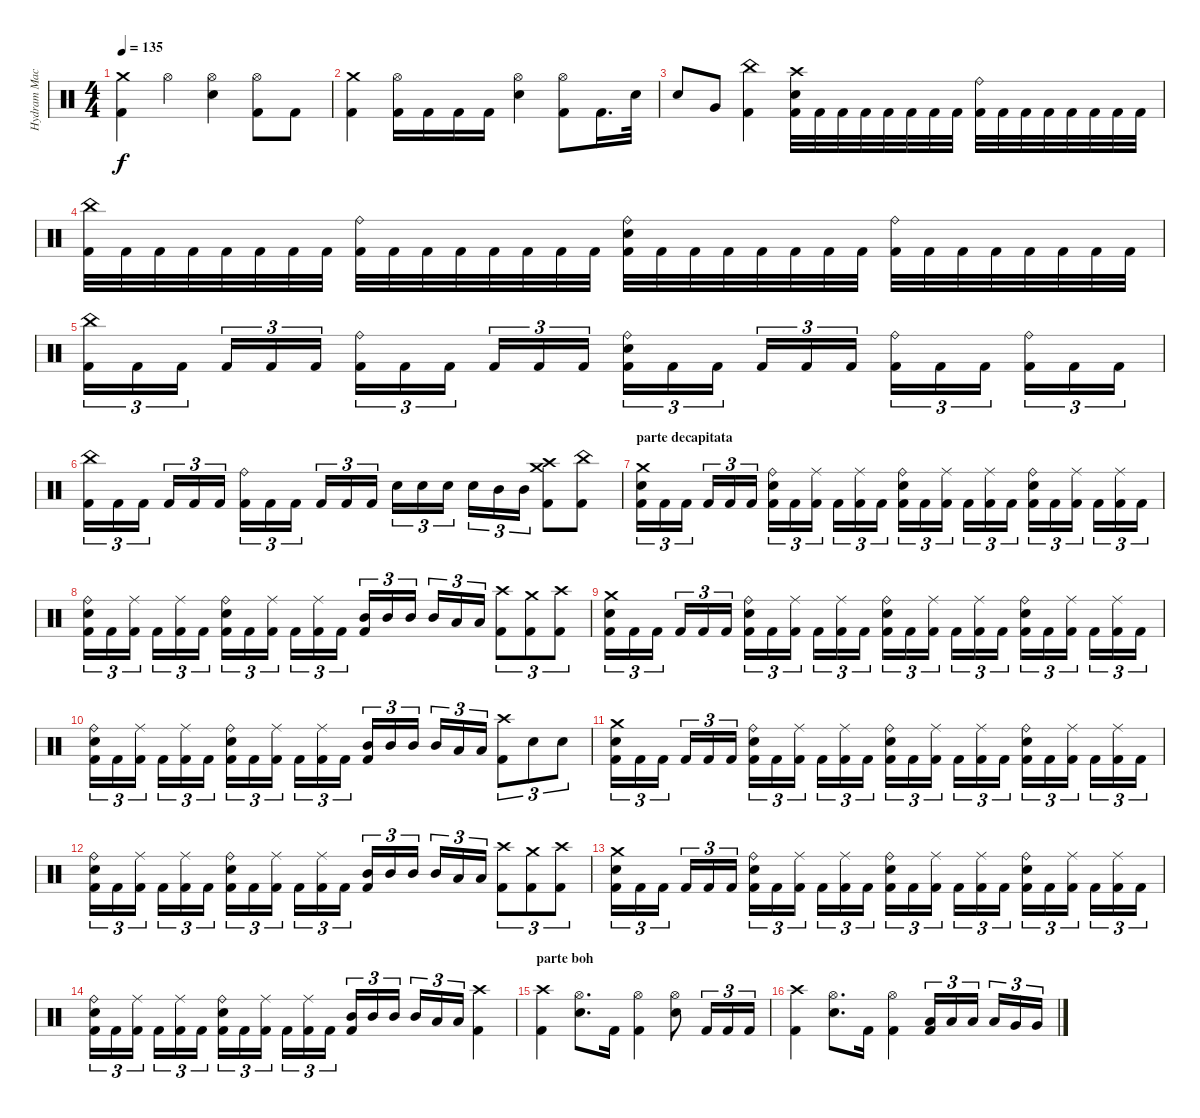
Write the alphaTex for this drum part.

\track ("Hydram Machine" "Hydram Mac") {instrument percussion}
\staff {score}
\articulation defaults
\ts (4 4)
\tempo 135
\clef neutral
\ks c
("Crash medium (hit)" "Kick (hit) 2").4{dy f} "Hi-Hat (open)".4 ("Hi-Hat (open)" "Electric Snare (hit)").4 ("Hi-Hat (open)" "Kick (hit) 2").8 "Kick (hit) 2".8 |
("Crash medium (hit)" "Kick (hit) 2").4 ("Hi-Hat (open)" "Kick (hit) 2").16 "Kick (hit) 2".16 "Kick (hit) 2".16 "Kick (hit) 2".16 ("Hi-Hat (open)" "Electric Snare (hit)").4 ("Hi-Hat (open)" "Kick (hit) 2").8 "Kick (hit) 2".16{d} "Electric Snare (hit)".32 |
"Electric Snare (hit)".8 "Very Low Tom (hit)".8 ("China (hit)" "Kick (hit) 2").4 ("Crash high (hit)" "Electric Snare (hit)" "Kick (hit) 2").32 "Kick (hit) 2".32 "Kick (hit) 2".32 "Kick (hit) 2".32 "Kick (hit) 2".32 "Kick (hit) 2".32 "Kick (hit) 2".32 "Kick (hit) 2".32 ("Ride (bell)" "Kick (hit) 2").32 "Kick (hit) 2".32 "Kick (hit) 2".32 "Kick (hit) 2".32 "Kick (hit) 2".32 "Kick (hit) 2".32 "Kick (hit) 2".32 "Kick (hit) 2".32 |
("China (hit)" "Kick (hit) 2").32 "Kick (hit) 2".32 "Kick (hit) 2".32 "Kick (hit) 2".32 "Kick (hit) 2".32 "Kick (hit) 2".32 "Kick (hit) 2".32 "Kick (hit) 2".32 ("Ride (bell)" "Kick (hit) 2").32 "Kick (hit) 2".32 "Kick (hit) 2".32 "Kick (hit) 2".32 "Kick (hit) 2".32 "Kick (hit) 2".32 "Kick (hit) 2".32 "Kick (hit) 2".32 ("Ride (bell)" "Electric Snare (hit)" "Kick (hit) 2").32 "Kick (hit) 2".32 "Kick (hit) 2".32 "Kick (hit) 2".32 "Kick (hit) 2".32 "Kick (hit) 2".32 "Kick (hit) 2".32 "Kick (hit) 2".32 ("Ride (bell)" "Kick (hit) 2").32 "Kick (hit) 2".32 "Kick (hit) 2".32 "Kick (hit) 2".32 "Kick (hit) 2".32 "Kick (hit) 2".32 "Kick (hit) 2".32 "Kick (hit) 2".32 |
("China (hit)" "Kick (hit) 2").16{tu (3 2)} "Kick (hit) 2".16{tu (3 2)} "Kick (hit) 2".16{tu (3 2) beam splitsecondary} "Kick (hit) 2".16{tu (3 2)} "Kick (hit) 2".16{tu (3 2)} "Kick (hit) 2".16{tu (3 2)} ("Ride (bell)" "Kick (hit) 2").16{tu (3 2)} "Kick (hit) 2".16{tu (3 2)} "Kick (hit) 2".16{tu (3 2) beam splitsecondary} "Kick (hit) 2".16{tu (3 2)} "Kick (hit) 2".16{tu (3 2)} "Kick (hit) 2".16{tu (3 2)} ("Ride (bell)" "Electric Snare (hit)" "Kick (hit) 2").16{tu (3 2)} "Kick (hit) 2".16{tu (3 2)} "Kick (hit) 2".16{tu (3 2) beam splitsecondary} "Kick (hit) 2".16{tu (3 2)} "Kick (hit) 2".16{tu (3 2)} "Kick (hit) 2".16{tu (3 2)} ("Ride (bell)" "Kick (hit) 2").16{tu (3 2)} "Kick (hit) 2".16{tu (3 2)} "Kick (hit) 2".16{tu (3 2) beam splitsecondary} ("Ride (bell)" "Kick (hit) 2").16{tu (3 2)} "Kick (hit) 2".16{tu (3 2)} "Kick (hit) 2".16{tu (3 2)} |
("China (hit)" "Kick (hit) 2").16{tu (3 2)} "Kick (hit) 2".16{tu (3 2)} "Kick (hit) 2".16{tu (3 2) beam splitsecondary} "Kick (hit) 2".16{tu (3 2)} "Kick (hit) 2".16{tu (3 2)} "Kick (hit) 2".16{tu (3 2)} ("Ride (bell)" "Kick (hit) 2").16{tu (3 2)} "Kick (hit) 2".16{tu (3 2)} "Kick (hit) 2".16{tu (3 2) beam splitsecondary} "Kick (hit) 2".16{tu (3 2)} "Kick (hit) 2".16{tu (3 2)} "Kick (hit) 2".16{tu (3 2)} "Electric Snare (hit)".16{tu (3 2)} "Electric Snare (hit)".16{tu (3 2)} "Electric Snare (hit)".16{tu (3 2) beam splitsecondary} "Electric Snare (hit)".16{tu (3 2)} "Mid Tom (hit)".16{tu (3 2)} "Mid Tom (hit)".16{tu (3 2)} ("Crash medium (hit)" "Crash high (hit)" "Kick (hit) 2").8 ("China (hit)" "Kick (hit) 2").8 |
\section ("" "parte decapitata")
("Crash medium (hit)" "Electric Snare (hit)" "Kick (hit) 2").16{tu (3 2)} "Kick (hit) 2".16{tu (3 2)} "Kick (hit) 2".16{tu (3 2) beam splitsecondary} "Kick (hit) 2".16{tu (3 2)} "Kick (hit) 2".16{tu (3 2)} "Kick (hit) 2".16{tu (3 2)} ("Ride (bell)" "Electric Snare (hit)" "Kick (hit) 2").16{tu (3 2)} "Kick (hit) 2".16{tu (3 2)} ("Ride (middle)" "Kick (hit) 2").16{tu (3 2) beam splitsecondary} "Kick (hit) 2".16{tu (3 2)} ("Ride (middle)" "Kick (hit) 2").16{tu (3 2)} "Kick (hit) 2".16{tu (3 2)} ("Ride (bell)" "Electric Snare (hit)" "Kick (hit) 2").16{tu (3 2)} "Kick (hit) 2".16{tu (3 2)} ("Ride (middle)" "Kick (hit) 2").16{tu (3 2) beam splitsecondary} "Kick (hit) 2".16{tu (3 2)} ("Ride (middle)" "Kick (hit) 2").16{tu (3 2)} "Kick (hit) 2".16{tu (3 2)} ("Ride (bell)" "Electric Snare (hit)" "Kick (hit) 2").16{tu (3 2)} "Kick (hit) 2".16{tu (3 2)} ("Ride (middle)" "Kick (hit) 2").16{tu (3 2) beam splitsecondary} "Kick (hit) 2".16{tu (3 2)} ("Ride (middle)" "Kick (hit) 2").16{tu (3 2)} "Kick (hit) 2".16{tu (3 2)} |
("Ride (bell)" "Electric Snare (hit)" "Kick (hit) 2").16{tu (3 2)} "Kick (hit) 2".16{tu (3 2)} ("Ride (middle)" "Kick (hit) 2").16{tu (3 2) beam splitsecondary} "Kick (hit) 2".16{tu (3 2)} ("Ride (middle)" "Kick (hit) 2").16{tu (3 2)} "Kick (hit) 2".16{tu (3 2)} ("Ride (bell)" "Electric Snare (hit)" "Kick (hit) 2").16{tu (3 2)} "Kick (hit) 2".16{tu (3 2)} ("Ride (middle)" "Kick (hit) 2").16{tu (3 2) beam splitsecondary} "Kick (hit) 2".16{tu (3 2)} ("Ride (middle)" "Kick (hit) 2").16{tu (3 2)} "Kick (hit) 2".16{tu (3 2)} ("Mid Tom (hit)" "Kick (hit) 2").16{tu (3 2)} "Mid Tom (hit)".16{tu (3 2)} "Mid Tom (hit)".16{tu (3 2) beam splitsecondary} "Mid Tom (hit)".16{tu (3 2)} "Low Tom (hit)".16{tu (3 2)} "Low Tom (hit)".16{tu (3 2)} ("Crash high (hit)" "Kick (hit) 2").8{tu (3 2)} ("Crash medium (hit)" "Kick (hit) 2").8{tu (3 2)} ("Crash high (hit)" "Kick (hit) 2").8{tu (3 2)} |
("Crash medium (hit)" "Electric Snare (hit)" "Kick (hit) 2").16{tu (3 2)} "Kick (hit) 2".16{tu (3 2)} "Kick (hit) 2".16{tu (3 2) beam splitsecondary} "Kick (hit) 2".16{tu (3 2)} "Kick (hit) 2".16{tu (3 2)} "Kick (hit) 2".16{tu (3 2)} ("Ride (bell)" "Electric Snare (hit)" "Kick (hit) 2").16{tu (3 2)} "Kick (hit) 2".16{tu (3 2)} ("Ride (middle)" "Kick (hit) 2").16{tu (3 2) beam splitsecondary} "Kick (hit) 2".16{tu (3 2)} ("Ride (middle)" "Kick (hit) 2").16{tu (3 2)} "Kick (hit) 2".16{tu (3 2)} ("Ride (bell)" "Electric Snare (hit)" "Kick (hit) 2").16{tu (3 2)} "Kick (hit) 2".16{tu (3 2)} ("Ride (middle)" "Kick (hit) 2").16{tu (3 2) beam splitsecondary} "Kick (hit) 2".16{tu (3 2)} ("Ride (middle)" "Kick (hit) 2").16{tu (3 2)} "Kick (hit) 2".16{tu (3 2)} ("Ride (bell)" "Electric Snare (hit)" "Kick (hit) 2").16{tu (3 2)} "Kick (hit) 2".16{tu (3 2)} ("Ride (middle)" "Kick (hit) 2").16{tu (3 2) beam splitsecondary} "Kick (hit) 2".16{tu (3 2)} ("Ride (middle)" "Kick (hit) 2").16{tu (3 2)} "Kick (hit) 2".16{tu (3 2)} |
("Ride (bell)" "Electric Snare (hit)" "Kick (hit) 2").16{tu (3 2)} "Kick (hit) 2".16{tu (3 2)} ("Ride (middle)" "Kick (hit) 2").16{tu (3 2) beam splitsecondary} "Kick (hit) 2".16{tu (3 2)} ("Ride (middle)" "Kick (hit) 2").16{tu (3 2)} "Kick (hit) 2".16{tu (3 2)} ("Ride (bell)" "Electric Snare (hit)" "Kick (hit) 2").16{tu (3 2)} "Kick (hit) 2".16{tu (3 2)} ("Ride (middle)" "Kick (hit) 2").16{tu (3 2) beam splitsecondary} "Kick (hit) 2".16{tu (3 2)} ("Ride (middle)" "Kick (hit) 2").16{tu (3 2)} "Kick (hit) 2".16{tu (3 2)} ("Mid Tom (hit)" "Kick (hit) 2").16{tu (3 2)} "Mid Tom (hit)".16{tu (3 2)} "Mid Tom (hit)".16{tu (3 2) beam splitsecondary} "Mid Tom (hit)".16{tu (3 2)} "Low Tom (hit)".16{tu (3 2)} "Low Tom (hit)".16{tu (3 2)} ("Crash high (hit)" "Kick (hit) 2").8{tu (3 2)} "Electric Snare (hit)".8{tu (3 2)} "Electric Snare (hit)".8{tu (3 2)} |
("Crash medium (hit)" "Electric Snare (hit)" "Kick (hit) 2").16{tu (3 2)} "Kick (hit) 2".16{tu (3 2)} "Kick (hit) 2".16{tu (3 2) beam splitsecondary} "Kick (hit) 2".16{tu (3 2)} "Kick (hit) 2".16{tu (3 2)} "Kick (hit) 2".16{tu (3 2)} ("Ride (bell)" "Electric Snare (hit)" "Kick (hit) 2").16{tu (3 2)} "Kick (hit) 2".16{tu (3 2)} ("Ride (middle)" "Kick (hit) 2").16{tu (3 2) beam splitsecondary} "Kick (hit) 2".16{tu (3 2)} ("Ride (middle)" "Kick (hit) 2").16{tu (3 2)} "Kick (hit) 2".16{tu (3 2)} ("Ride (bell)" "Electric Snare (hit)" "Kick (hit) 2").16{tu (3 2)} "Kick (hit) 2".16{tu (3 2)} ("Ride (middle)" "Kick (hit) 2").16{tu (3 2) beam splitsecondary} "Kick (hit) 2".16{tu (3 2)} ("Ride (middle)" "Kick (hit) 2").16{tu (3 2)} "Kick (hit) 2".16{tu (3 2)} ("Ride (bell)" "Electric Snare (hit)" "Kick (hit) 2").16{tu (3 2)} "Kick (hit) 2".16{tu (3 2)} ("Ride (middle)" "Kick (hit) 2").16{tu (3 2) beam splitsecondary} "Kick (hit) 2".16{tu (3 2)} ("Ride (middle)" "Kick (hit) 2").16{tu (3 2)} "Kick (hit) 2".16{tu (3 2)} |
("Ride (bell)" "Electric Snare (hit)" "Kick (hit) 2").16{tu (3 2)} "Kick (hit) 2".16{tu (3 2)} ("Ride (middle)" "Kick (hit) 2").16{tu (3 2) beam splitsecondary} "Kick (hit) 2".16{tu (3 2)} ("Ride (middle)" "Kick (hit) 2").16{tu (3 2)} "Kick (hit) 2".16{tu (3 2)} ("Ride (bell)" "Electric Snare (hit)" "Kick (hit) 2").16{tu (3 2)} "Kick (hit) 2".16{tu (3 2)} ("Ride (middle)" "Kick (hit) 2").16{tu (3 2) beam splitsecondary} "Kick (hit) 2".16{tu (3 2)} ("Ride (middle)" "Kick (hit) 2").16{tu (3 2)} "Kick (hit) 2".16{tu (3 2)} ("Mid Tom (hit)" "Kick (hit) 2").16{tu (3 2)} "Mid Tom (hit)".16{tu (3 2)} "Mid Tom (hit)".16{tu (3 2) beam splitsecondary} "Mid Tom (hit)".16{tu (3 2)} "Low Tom (hit)".16{tu (3 2)} "Low Tom (hit)".16{tu (3 2)} ("Crash high (hit)" "Kick (hit) 2").8{tu (3 2)} ("Crash medium (hit)" "Kick (hit) 2").8{tu (3 2)} ("Crash high (hit)" "Kick (hit) 2").8{tu (3 2)} |
("Crash medium (hit)" "Electric Snare (hit)" "Kick (hit) 2").16{tu (3 2)} "Kick (hit) 2".16{tu (3 2)} "Kick (hit) 2".16{tu (3 2) beam splitsecondary} "Kick (hit) 2".16{tu (3 2)} "Kick (hit) 2".16{tu (3 2)} "Kick (hit) 2".16{tu (3 2)} ("Ride (bell)" "Electric Snare (hit)" "Kick (hit) 2").16{tu (3 2)} "Kick (hit) 2".16{tu (3 2)} ("Ride (middle)" "Kick (hit) 2").16{tu (3 2) beam splitsecondary} "Kick (hit) 2".16{tu (3 2)} ("Ride (middle)" "Kick (hit) 2").16{tu (3 2)} "Kick (hit) 2".16{tu (3 2)} ("Ride (bell)" "Electric Snare (hit)" "Kick (hit) 2").16{tu (3 2)} "Kick (hit) 2".16{tu (3 2)} ("Ride (middle)" "Kick (hit) 2").16{tu (3 2) beam splitsecondary} "Kick (hit) 2".16{tu (3 2)} ("Ride (middle)" "Kick (hit) 2").16{tu (3 2)} "Kick (hit) 2".16{tu (3 2)} ("Ride (bell)" "Electric Snare (hit)" "Kick (hit) 2").16{tu (3 2)} "Kick (hit) 2".16{tu (3 2)} ("Ride (middle)" "Kick (hit) 2").16{tu (3 2) beam splitsecondary} "Kick (hit) 2".16{tu (3 2)} ("Ride (middle)" "Kick (hit) 2").16{tu (3 2)} "Kick (hit) 2".16{tu (3 2)} |
("Ride (bell)" "Electric Snare (hit)" "Kick (hit) 2").16{tu (3 2)} "Kick (hit) 2".16{tu (3 2)} ("Ride (middle)" "Kick (hit) 2").16{tu (3 2) beam splitsecondary} "Kick (hit) 2".16{tu (3 2)} ("Ride (middle)" "Kick (hit) 2").16{tu (3 2)} "Kick (hit) 2".16{tu (3 2)} ("Ride (bell)" "Electric Snare (hit)" "Kick (hit) 2").16{tu (3 2)} "Kick (hit) 2".16{tu (3 2)} ("Ride (middle)" "Kick (hit) 2").16{tu (3 2) beam splitsecondary} "Kick (hit) 2".16{tu (3 2)} ("Ride (middle)" "Kick (hit) 2").16{tu (3 2)} "Kick (hit) 2".16{tu (3 2)} ("Mid Tom (hit)" "Kick (hit) 2").16{tu (3 2)} "Mid Tom (hit)".16{tu (3 2)} "Mid Tom (hit)".16{tu (3 2) beam splitsecondary} "Mid Tom (hit)".16{tu (3 2)} "Low Tom (hit)".16{tu (3 2)} "Low Tom (hit)".16{tu (3 2)} ("Crash high (hit)" "Kick (hit) 2").4 |
\section ("" "parte boh")
("Crash high (hit)" "Kick (hit) 2").4 ("Hi-Hat (open)" "Electric Snare (hit)").8{d} "Kick (hit) 2".16 ("Hi-Hat (open)" "Kick (hit) 2").4 ("Hi-Hat (open)" "Electric Snare (hit)").8 "Kick (hit) 2".16{tu (3 2)} "Kick (hit) 2".16{tu (3 2)} "Kick (hit) 2".16{tu (3 2)} |
("Crash high (hit)" "Kick (hit) 2").4 ("Hi-Hat (open)" "Electric Snare (hit)").8{d} "Kick (hit) 2".16 ("Hi-Hat (open)" "Kick (hit) 2").4 ("Low Tom (hit)" "Kick (hit) 2").16{tu (3 2)} "Low Tom (hit)".16{tu (3 2)} "Low Tom (hit)".16{tu (3 2) beam splitsecondary} "Low Tom (hit)".16{tu (3 2)} "Very Low Tom (hit)".16{tu (3 2)} "Very Low Tom (hit)".16{tu (3 2)}
